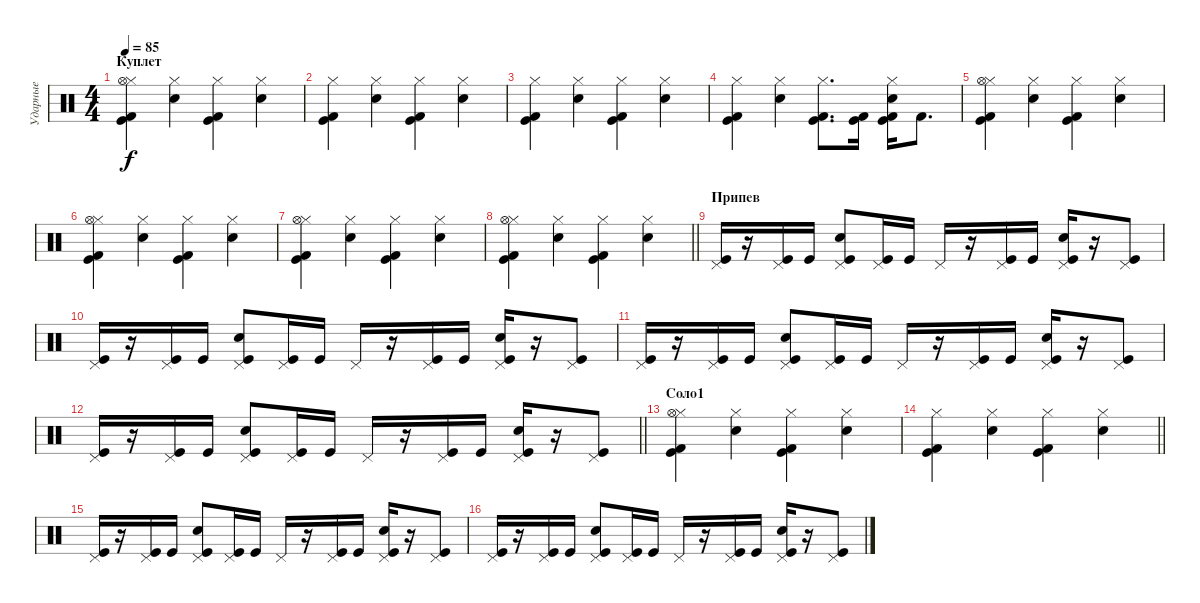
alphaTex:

\track ("Ударные" "Ударные") {instrument percussion}
\staff {score}
\articulation defaults
\ts (4 4)
\section ("" "Куплет")
\tempo 85
\clef neutral
\ks c
("Hi-Hat (closed)" "Hi-Hat (open)" "Kick (hit)" "Kick (hit) 2").4{dy f} ("Hi-Hat (closed)" "Electric Snare (hit)").4 ("Hi-Hat (closed)" "Kick (hit)" "Kick (hit) 2").4 ("Hi-Hat (closed)" "Electric Snare (hit)").4 |
("Hi-Hat (closed)" "Kick (hit)" "Kick (hit) 2").4 ("Hi-Hat (closed)" "Electric Snare (hit)").4 ("Hi-Hat (closed)" "Kick (hit)" "Kick (hit) 2").4 ("Hi-Hat (closed)" "Electric Snare (hit)").4 |
("Hi-Hat (closed)" "Kick (hit)" "Kick (hit) 2").4 ("Hi-Hat (closed)" "Electric Snare (hit)").4 ("Hi-Hat (closed)" "Kick (hit)" "Kick (hit) 2").4 ("Hi-Hat (closed)" "Electric Snare (hit)").4 |
("Hi-Hat (closed)" "Kick (hit)" "Kick (hit) 2").4 ("Hi-Hat (closed)" "Electric Snare (hit)").4 ("Hi-Hat (closed)" "Kick (hit)" "Kick (hit) 2").8{d} ("Kick (hit)" "Kick (hit) 2").16 ("Hi-Hat (closed)" "Electric Snare (hit)" "Kick (hit)" "Kick (hit) 2").16 "Kick (hit) 2".8{d} |
("Hi-Hat (closed)" "Hi-Hat (open)" "Kick (hit)" "Kick (hit) 2").4 ("Hi-Hat (closed)" "Electric Snare (hit)").4 ("Hi-Hat (closed)" "Kick (hit)" "Kick (hit) 2").4 ("Hi-Hat (closed)" "Electric Snare (hit)").4 |
("Hi-Hat (closed)" "Hi-Hat (open)" "Kick (hit)" "Kick (hit) 2").4 ("Hi-Hat (closed)" "Electric Snare (hit)").4 ("Hi-Hat (closed)" "Kick (hit)" "Kick (hit) 2").4 ("Hi-Hat (closed)" "Electric Snare (hit)").4 |
("Hi-Hat (closed)" "Hi-Hat (open)" "Kick (hit)" "Kick (hit) 2").4 ("Hi-Hat (closed)" "Electric Snare (hit)").4 ("Hi-Hat (closed)" "Kick (hit)" "Kick (hit) 2").4 ("Hi-Hat (closed)" "Electric Snare (hit)").4 |
\barLineRight lightlight
("Hi-Hat (closed)" "Hi-Hat (open)" "Kick (hit)" "Kick (hit) 2").4 ("Hi-Hat (closed)" "Electric Snare (hit)").4 ("Hi-Hat (closed)" "Kick (hit)" "Kick (hit) 2").4 ("Hi-Hat (closed)" "Electric Snare (hit)").4 |
\section ("" "Припев")
("Kick (hit)" "Pedal Hi-Hat (hit)").16 r.16 ("Kick (hit)" "Pedal Hi-Hat (hit)").16 "Kick (hit)".16 ("Kick (hit)" "Pedal Hi-Hat (hit)" "Electric Snare (hit)").8 ("Kick (hit)" "Pedal Hi-Hat (hit)").16 "Kick (hit)".16 "Pedal Hi-Hat (hit)".16 r.16 ("Kick (hit)" "Pedal Hi-Hat (hit)").16 "Kick (hit)".16 ("Kick (hit)" "Pedal Hi-Hat (hit)" "Electric Snare (hit)").16 r.16 ("Kick (hit)" "Pedal Hi-Hat (hit)").8 |
("Kick (hit)" "Pedal Hi-Hat (hit)").16 r.16 ("Kick (hit)" "Pedal Hi-Hat (hit)").16 "Kick (hit)".16 ("Kick (hit)" "Pedal Hi-Hat (hit)" "Electric Snare (hit)").8 ("Kick (hit)" "Pedal Hi-Hat (hit)").16 "Kick (hit)".16 "Pedal Hi-Hat (hit)".16 r.16 ("Kick (hit)" "Pedal Hi-Hat (hit)").16 "Kick (hit)".16 ("Kick (hit)" "Pedal Hi-Hat (hit)" "Electric Snare (hit)").16 r.16 ("Kick (hit)" "Pedal Hi-Hat (hit)").8 |
("Kick (hit)" "Pedal Hi-Hat (hit)").16 r.16 ("Kick (hit)" "Pedal Hi-Hat (hit)").16 "Kick (hit)".16 ("Kick (hit)" "Pedal Hi-Hat (hit)" "Electric Snare (hit)").8 ("Kick (hit)" "Pedal Hi-Hat (hit)").16 "Kick (hit)".16 "Pedal Hi-Hat (hit)".16 r.16 ("Kick (hit)" "Pedal Hi-Hat (hit)").16 "Kick (hit)".16 ("Kick (hit)" "Pedal Hi-Hat (hit)" "Electric Snare (hit)").16 r.16 ("Kick (hit)" "Pedal Hi-Hat (hit)").8 |
\barLineRight lightlight
("Kick (hit)" "Pedal Hi-Hat (hit)").16 r.16 ("Kick (hit)" "Pedal Hi-Hat (hit)").16 "Kick (hit)".16 ("Kick (hit)" "Pedal Hi-Hat (hit)" "Electric Snare (hit)").8 ("Kick (hit)" "Pedal Hi-Hat (hit)").16 "Kick (hit)".16 "Pedal Hi-Hat (hit)".16 r.16 ("Kick (hit)" "Pedal Hi-Hat (hit)").16 "Kick (hit)".16 ("Kick (hit)" "Pedal Hi-Hat (hit)" "Electric Snare (hit)").16 r.16 ("Kick (hit)" "Pedal Hi-Hat (hit)").8 |
\section ("" "Соло1")
("Hi-Hat (closed)" "Hi-Hat (open)" "Kick (hit)" "Kick (hit) 2").4 ("Hi-Hat (closed)" "Electric Snare (hit)").4 ("Hi-Hat (closed)" "Kick (hit)" "Kick (hit) 2").4 ("Hi-Hat (closed)" "Electric Snare (hit)").4 |
\barLineRight lightlight
("Hi-Hat (closed)" "Kick (hit)" "Kick (hit) 2").4 ("Hi-Hat (closed)" "Electric Snare (hit)").4 ("Hi-Hat (closed)" "Kick (hit)" "Kick (hit) 2").4 ("Hi-Hat (closed)" "Electric Snare (hit)").4 |
("Kick (hit)" "Pedal Hi-Hat (hit)").16 r.16 ("Kick (hit)" "Pedal Hi-Hat (hit)").16 "Kick (hit)".16 ("Kick (hit)" "Pedal Hi-Hat (hit)" "Electric Snare (hit)").8 ("Kick (hit)" "Pedal Hi-Hat (hit)").16 "Kick (hit)".16 "Pedal Hi-Hat (hit)".16 r.16 ("Kick (hit)" "Pedal Hi-Hat (hit)").16 "Kick (hit)".16 ("Kick (hit)" "Pedal Hi-Hat (hit)" "Electric Snare (hit)").16 r.16 ("Kick (hit)" "Pedal Hi-Hat (hit)").8 |
("Kick (hit)" "Pedal Hi-Hat (hit)").16 r.16 ("Kick (hit)" "Pedal Hi-Hat (hit)").16 "Kick (hit)".16 ("Kick (hit)" "Pedal Hi-Hat (hit)" "Electric Snare (hit)").8 ("Kick (hit)" "Pedal Hi-Hat (hit)").16 "Kick (hit)".16 "Pedal Hi-Hat (hit)".16 r.16 ("Kick (hit)" "Pedal Hi-Hat (hit)").16 "Kick (hit)".16 ("Kick (hit)" "Pedal Hi-Hat (hit)" "Electric Snare (hit)").16 r.16 ("Kick (hit)" "Pedal Hi-Hat (hit)").8
